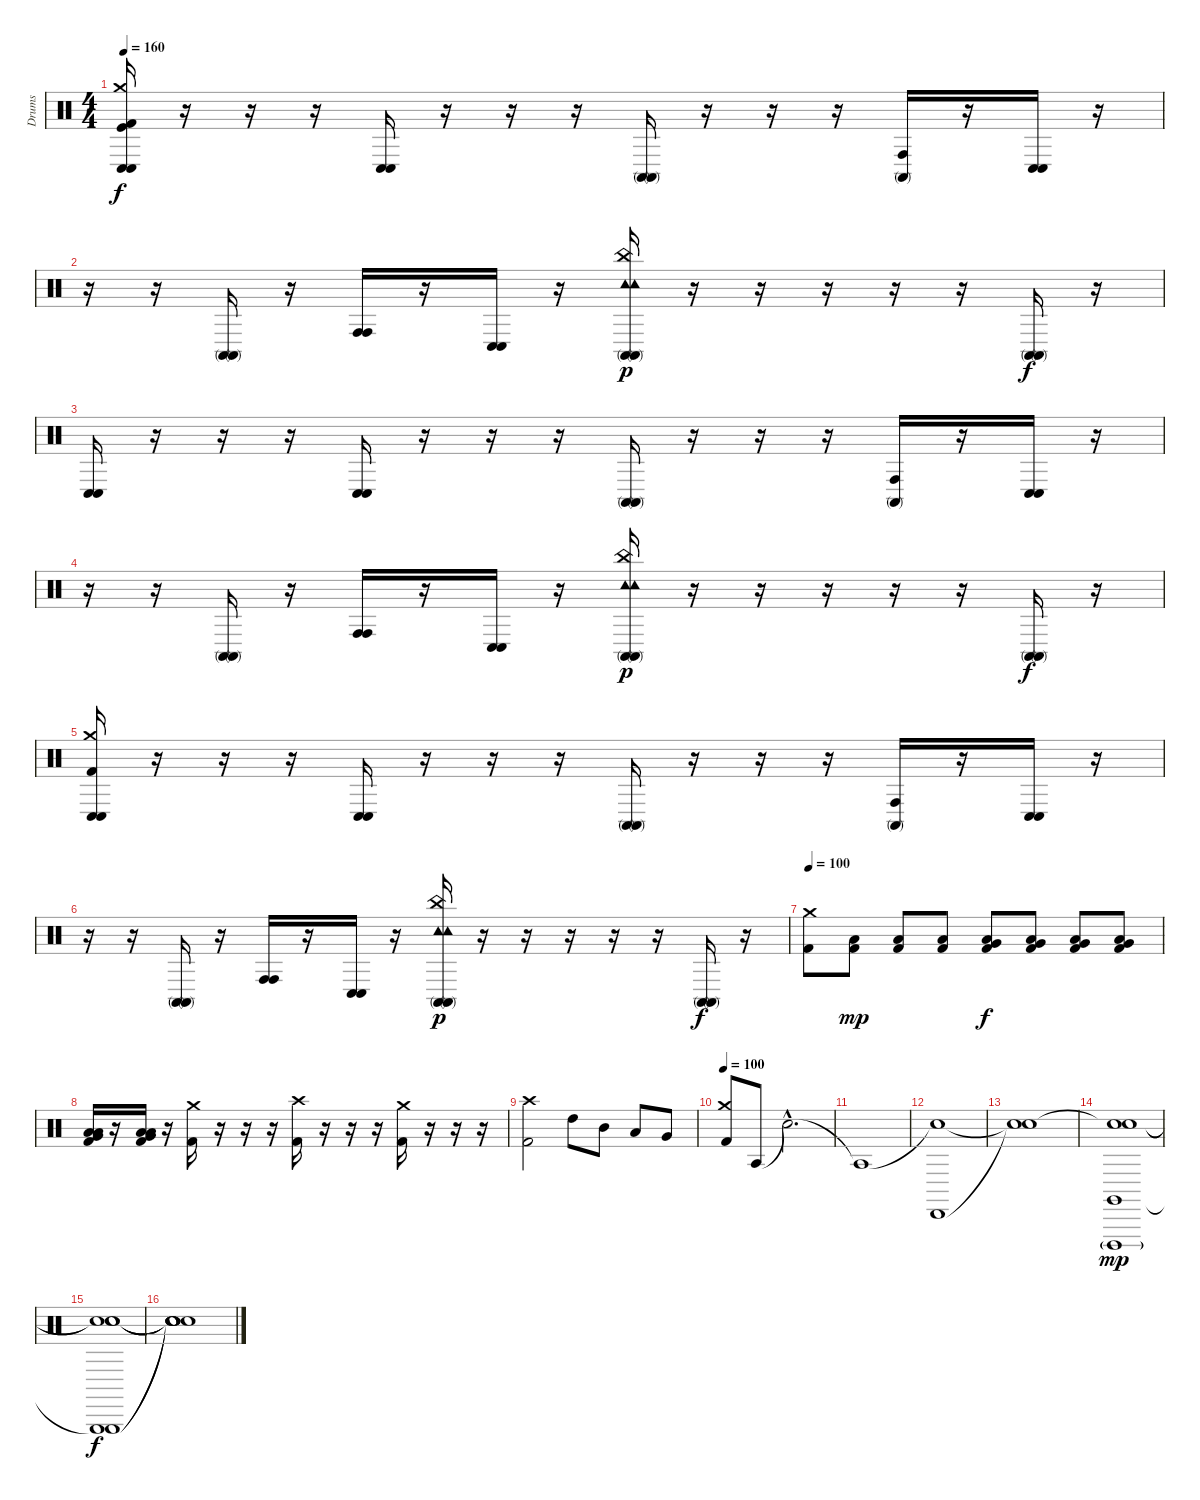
\track ("Drums" "Drums") {instrument percussion}
\staff {score}
\articulation defaults
\ts (4 4)
\tempo 160
\clef neutral
\ks c
("Conga low (hit)" "Conga low (hit)" "Crash medium (hit)" "Kick (hit) 2" "Kick (hit)").16{dy f} r.16 r.16 r.16 ("Conga low (hit)" "Conga low (hit)").16 r.16 r.16 r.16 ("Conga high (mute)" "Conga high (mute)").16 r.16 r.16 r.16 ("Conga high (hit)" "Conga high (mute)").16 r.16 ("Conga low (hit)" "Conga low (hit)").16 r.16 |
r.16 r.16 ("Conga high (mute)" "Conga high (mute)").16 r.16 ("Conga high (hit)" "Conga high (hit)").16 r.16 ("Conga low (hit)" "Conga low (hit)").16 r.16 ("Conga high (mute)" "Conga high (mute)" "Tambourine (hit)" "Tambourine (hit)" "China (hit)").16{dy p} r.16 r.16 r.16 r.16 r.16 ("Conga high (mute)" "Conga high (mute)").16{dy f} r.16 |
("Conga low (hit)" "Conga low (hit)").16 r.16 r.16 r.16 ("Conga low (hit)" "Conga low (hit)").16 r.16 r.16 r.16 ("Conga high (mute)" "Conga high (mute)").16 r.16 r.16 r.16 ("Conga high (hit)" "Conga high (mute)").16 r.16 ("Conga low (hit)" "Conga low (hit)").16 r.16 |
r.16 r.16 ("Conga high (mute)" "Conga high (mute)").16 r.16 ("Conga high (hit)" "Conga high (hit)").16 r.16 ("Conga low (hit)" "Conga low (hit)").16 r.16 ("Conga high (mute)" "Conga high (mute)" "Tambourine (hit)" "Tambourine (hit)" "China (hit)").16{dy p} r.16 r.16 r.16 r.16 r.16 ("Conga high (mute)" "Conga high (mute)").16{dy f} r.16 |
("Conga low (hit)" "Conga low (hit)" "Crash medium (hit)" "Kick (hit) 2").16 r.16 r.16 r.16 ("Conga low (hit)" "Conga low (hit)").16 r.16 r.16 r.16 ("Conga high (mute)" "Conga high (mute)").16 r.16 r.16 r.16 ("Conga high (hit)" "Conga high (mute)").16 r.16 ("Conga low (hit)" "Conga low (hit)").16 r.16 |
r.16 r.16 ("Conga high (mute)" "Conga high (mute)").16 r.16 ("Conga high (hit)" "Conga high (hit)").16 r.16 ("Conga low (hit)" "Conga low (hit)").16 r.16 ("Conga high (mute)" "Conga high (mute)" "Tambourine (hit)" "Tambourine (hit)" "China (hit)").16{dy p} r.16 r.16 r.16 r.16 r.16 ("Conga high (mute)" "Conga high (mute)").16{dy f} r.16 |
\tempo 100
("Crash medium (hit)" "Kick (hit) 2").8 ("Low Floor Tom (hit)" "Kick (hit) 2").8{dy mp} ("Low Floor Tom (hit)" "Kick (hit) 2").8 ("Low Floor Tom (hit)" "Kick (hit) 2").8 ("Very Low Tom (hit)" "Low Floor Tom (hit)" "Kick (hit) 2").8{dy f} ("Very Low Tom (hit)" "Low Floor Tom (hit)" "Kick (hit) 2").8 ("Very Low Tom (hit)" "Low Floor Tom (hit)" "Kick (hit) 2").8 ("Very Low Tom (hit)" "Low Floor Tom (hit)" "Kick (hit) 2").8 |
("Low Tom (hit)" "Very Low Tom (hit)" "Low Floor Tom (hit)" "Kick (hit) 2").16 r.16 ("Low Tom (hit)" "Very Low Tom (hit)" "Low Floor Tom (hit)" "Kick (hit) 2").16 r.16 ("Crash medium (hit)" "Kick (hit) 2").16 r.16 r.16 r.16 ("Crash high (hit)" "Kick (hit) 2").16 r.16 r.16 r.16 ("Crash medium (hit)" "Kick (hit) 2").16 r.16 r.16 r.16 |
("Crash high (hit)" "Kick (hit) 2").2 "High Tom (hit)".8 "Mid Tom (hit)".8 "Low Tom (hit)".8 "Very Low Tom (hit)".8 |
\tempo 100
("Crash medium (hit)" "Kick (hit) 2").8 "Agogo tow (hit)".8 "Snare (hit)"{hac t}.2{d} |
"Agogo tow (hit)"{t}.1 |
("Snare (hit)"{t} "Cabasa (hit)").1 |
("Snare (hit)"{t} "Snare (hit)"{t}).1 |
("Snare (hit)"{t} "Cuica (open)"{g} "Claves (hit)" "Snare (hit)").1{dy mp} |
("Snare (hit)"{t} "Triangle (hit)" "Triangle (hit)"{t} "Snare (hit)"{t} "Snare (hit)").1{dy f} |
("Snare (hit)"{t} "Snare (hit)"{t} "Snare (hit)"{t} "Snare (hit)"{t} "Snare (hit)"{t}).1
